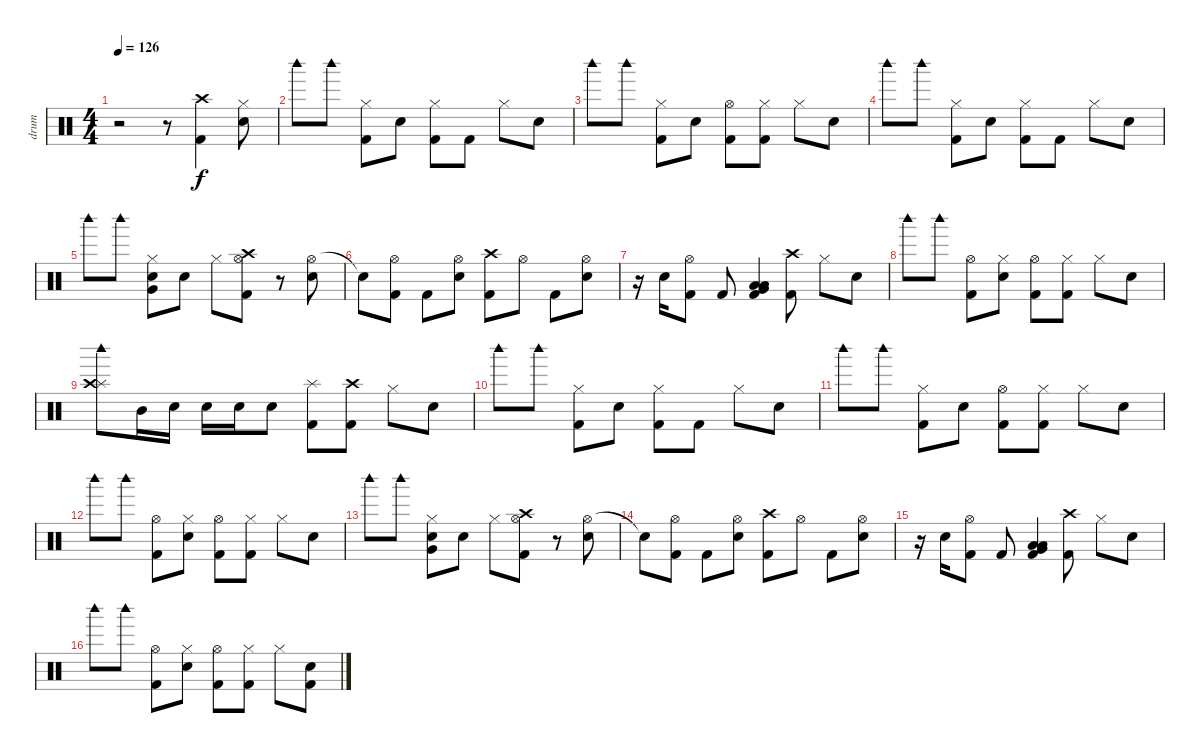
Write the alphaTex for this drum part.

\track ("drum" "drum") {instrument percussion}
\staff {score}
\articulation defaults
\ts (4 4)
\tempo 126
\clef neutral
\ks c
r.2{dy mp} r.8 ("Crash high (hit)" "Kick (hit) 2").4{dy f} ("Hi-Hat (closed)" "Snare (hit) 2").8 |
"Woodblock high (hit)".8 "Woodblock high (hit)".8 ("Hi-Hat (closed)" "Kick (hit) 2").8 "Snare (hit) 2".8 ("Hi-Hat (closed)" "Kick (hit) 2").8 "Kick (hit) 2".8 "Hi-Hat (closed)".8 "Snare (hit) 2".8 |
"Woodblock high (hit)".8 "Woodblock high (hit)".8 ("Hi-Hat (closed)" "Kick (hit) 2").8 "Snare (hit) 2".8 ("Hi-Hat (open)" "Kick (hit) 2").8 ("Hi-Hat (closed)" "Kick (hit) 2").8 "Hi-Hat (closed)".8 "Snare (hit) 2".8 |
"Woodblock high (hit)".8 "Woodblock high (hit)".8 ("Hi-Hat (closed)" "Kick (hit) 2").8 "Snare (hit) 2".8 ("Hi-Hat (closed)" "Kick (hit) 2").8 "Kick (hit) 2".8 "Hi-Hat (closed)".8 "Snare (hit) 2".8 |
"Woodblock high (hit)".8 "Woodblock high (hit)".8 ("Hi-Hat (closed)" "Snare (hit) 2" "Very Low Tom (hit)").8 "Snare (hit) 2".8 "Hi-Hat (closed)".8 ("Crash high (hit)" "Hi-Hat (open)" "Kick (hit) 2").8 r.8 ("Hi-Hat (open)" "Snare (hit) 2").8 |
"Snare (hit)"{t}.8 ("Hi-Hat (open)" "Kick (hit) 2").8 "Kick (hit) 2".8 ("Hi-Hat (open)" "Snare (hit) 2").8 ("Crash high (hit)" "Kick (hit) 2").8 "Hi-Hat (open)".8 "Kick (hit) 2".8 ("Hi-Hat (open)" "Snare (hit) 2").8 |
r.16 "Snare (hit) 2".16 ("Hi-Hat (open)" "Kick (hit) 2").8 "Kick (hit) 2".8 ("Very Low Tom (hit)" "Low Tom (hit)" "Low Floor Tom (hit)" "Kick (hit) 2").4 ("Crash high (hit)" "Kick (hit) 2").8 "Hi-Hat (closed)".8 "Snare (hit) 2".8 |
"Woodblock high (hit)".8 "Woodblock high (hit)".8 ("Hi-Hat (open)" "Kick (hit) 2").8 ("Hi-Hat (closed)" "Snare (hit) 2").8 ("Hi-Hat (open)" "Kick (hit) 2").8 ("Hi-Hat (closed)" "Kick (hit) 2").8 "Hi-Hat (closed)".8 "Snare (hit) 2".8 |
("Woodblock high (hit)" "Splash (hit)" "Crash high (hit)").8 "Mid Tom (hit)".16 "Snare (hit) 2".16 "Snare (hit) 2".16 "Snare (hit) 2".16 "Snare (hit) 2".8 ("Splash (hit)" "Kick (hit) 2").8 ("Crash high (hit)" "Kick (hit) 2").8 "Hi-Hat (closed)".8 "Snare (hit) 2".8 |
"Woodblock high (hit)".8 "Woodblock high (hit)".8 ("Hi-Hat (closed)" "Kick (hit) 2").8 "Snare (hit) 2".8 ("Hi-Hat (closed)" "Kick (hit) 2").8 "Kick (hit) 2".8 "Hi-Hat (closed)".8 "Snare (hit) 2".8 |
"Woodblock high (hit)".8 "Woodblock high (hit)".8 ("Hi-Hat (closed)" "Kick (hit) 2").8 "Snare (hit) 2".8 ("Hi-Hat (open)" "Kick (hit) 2").8 ("Hi-Hat (closed)" "Kick (hit) 2").8 "Hi-Hat (closed)".8 "Snare (hit) 2".8 |
"Woodblock high (hit)".8 "Woodblock high (hit)".8 ("Hi-Hat (open)" "Kick (hit) 2").8 ("Hi-Hat (closed)" "Snare (hit) 2").8 ("Hi-Hat (open)" "Kick (hit) 2").8 ("Hi-Hat (closed)" "Kick (hit) 2").8 "Hi-Hat (closed)".8 "Snare (hit) 2".8 |
"Woodblock high (hit)".8 "Woodblock high (hit)".8 ("Hi-Hat (closed)" "Snare (hit) 2" "Very Low Tom (hit)").8 "Snare (hit) 2".8 "Hi-Hat (closed)".8 ("Crash high (hit)" "Hi-Hat (open)" "Kick (hit) 2").8 r.8 ("Hi-Hat (open)" "Snare (hit) 2").8 |
"Snare (hit)"{t}.8 ("Hi-Hat (open)" "Kick (hit) 2").8 "Kick (hit) 2".8 ("Hi-Hat (open)" "Snare (hit) 2").8 ("Crash high (hit)" "Kick (hit) 2").8 "Hi-Hat (open)".8 "Kick (hit) 2".8 ("Hi-Hat (open)" "Snare (hit) 2").8 |
r.16 "Snare (hit) 2".16 ("Hi-Hat (open)" "Kick (hit) 2").8 "Kick (hit) 2".8 ("Very Low Tom (hit)" "Low Tom (hit)" "Low Floor Tom (hit)" "Kick (hit) 2").4 ("Crash high (hit)" "Kick (hit) 2").8 "Hi-Hat (closed)".8 "Snare (hit) 2".8 |
"Woodblock high (hit)".8 "Woodblock high (hit)".8 ("Hi-Hat (open)" "Kick (hit) 2").8 ("Hi-Hat (closed)" "Snare (hit) 2").8 ("Hi-Hat (open)" "Kick (hit) 2").8 ("Hi-Hat (closed)" "Kick (hit) 2").8 "Hi-Hat (closed)".8 ("Snare (hit) 2" "Kick (hit) 2").8
